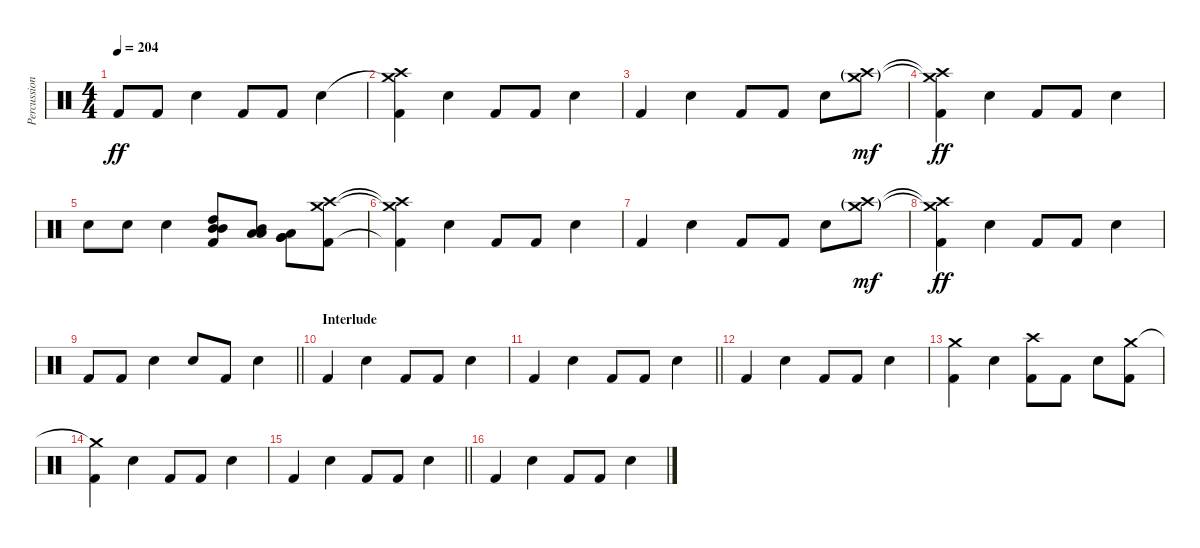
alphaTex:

\track ("Percussion" "Percussion") {instrument percussion}
\staff {score}
\articulation defaults
\ts (4 4)
\tempo 204
\clef neutral
\ks c "Kick (hit) 2".8{dy ff} "Kick (hit) 2".8 "Electric Snare (hit)".4 "Kick (hit) 2".8 "Kick (hit) 2".8 "Electric Snare (hit)".4
|
("Crash medium (hit)"{t} "Crash high (hit)"{t} "Kick (hit) 2"{t}).4 "Electric Snare (hit)".4 "Kick (hit) 2".8 "Kick (hit) 2".8 "Electric Snare (hit)".4 |
"Kick (hit) 2".4 "Electric Snare (hit)".4 "Kick (hit) 2".8 "Kick (hit) 2".8 "Electric Snare (hit)".8 ("Crash medium (hit)"{g} "Crash high (hit)"{g}).8{dy mf} |
("Crash medium (hit)"{t} "Crash high (hit)"{t} "Kick (hit) 2").4{dy ff} "Electric Snare (hit)".4 "Kick (hit) 2".8 "Kick (hit) 2".8 "Electric Snare (hit)".4 |
"Electric Snare (hit)".8 "Electric Snare (hit)".8 "Electric Snare (hit)".4 ("High Tom (hit)" "Mid Tom (hit)" "Mid Tom (hit)" "Kick (hit) 2").8 ("Mid Tom (hit)" "Low Tom (hit)" "Low Tom (hit)").8 ("Low Tom (hit)" "Very Low Tom (hit)" "Very Low Tom (hit)").8 ("Crash medium (hit)" "Crash high (hit)" "Kick (hit) 2").8 |
("Crash medium (hit)"{t} "Crash high (hit)"{t} "Kick (hit) 2"{t}).4 "Electric Snare (hit)".4 "Kick (hit) 2".8 "Kick (hit) 2".8 "Electric Snare (hit)".4 |
"Kick (hit) 2".4 "Electric Snare (hit)".4 "Kick (hit) 2".8 "Kick (hit) 2".8 "Electric Snare (hit)".8 ("Crash medium (hit)"{g} "Crash high (hit)"{g}).8{dy mf} |
("Crash medium (hit)"{t} "Crash high (hit)"{t} "Kick (hit) 2").4{dy ff} "Electric Snare (hit)".4 "Kick (hit) 2".8 "Kick (hit) 2".8 "Electric Snare (hit)".4 |
\barLineRight lightlight "Kick (hit) 2".8 "Kick (hit) 2".8 "Electric Snare (hit)".4 "Electric Snare (hit)".8 "Kick (hit) 2".8 "Electric Snare (hit)".4
|
\section ("" "Interlude")
"Kick (hit) 2".4 "Electric Snare (hit)".4 "Kick (hit) 2".8 "Kick (hit) 2".8 "Electric Snare (hit)".4 |
\barLineRight lightlight "Kick (hit) 2".4 "Electric Snare (hit)".4 "Kick (hit) 2".8 "Kick (hit) 2".8 "Electric Snare (hit)".4
|
"Kick (hit) 2".4 "Electric Snare (hit)".4 "Kick (hit) 2".8 "Kick (hit) 2".8 "Electric Snare (hit)".4 |
("Crash medium (hit)" "Kick (hit) 2").4 "Electric Snare (hit)".4 ("Crash high (hit)" "Kick (hit) 2").8 "Kick (hit) 2".8 "Electric Snare (hit)".8 ("Crash medium (hit)" "Kick (hit) 2").8 |
("Crash medium (hit)"{t} "Kick (hit) 2").4 "Electric Snare (hit)".4 "Kick (hit) 2".8 "Kick (hit) 2".8 "Electric Snare (hit)".4 |
\barLineRight lightlight "Kick (hit) 2".4 "Electric Snare (hit)".4 "Kick (hit) 2".8 "Kick (hit) 2".8 "Electric Snare (hit)".4
|
"Kick (hit) 2".4 "Electric Snare (hit)".4 "Kick (hit) 2".8 "Kick (hit) 2".8 "Electric Snare (hit)".4
